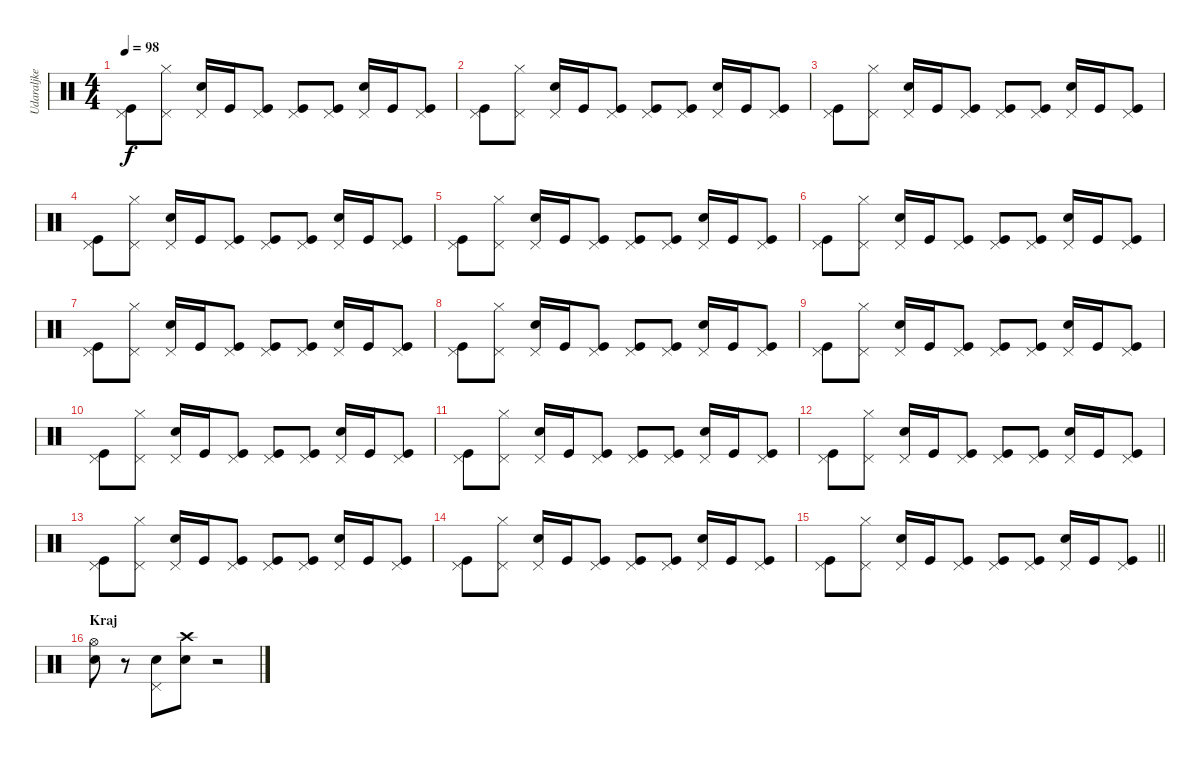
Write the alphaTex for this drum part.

\track ("Udaraljke" "Udaraljke") {instrument percussion}
\staff {score}
\articulation defaults
\ts (4 4)
\tempo 98
\clef neutral
\ks c
("Pedal Hi-Hat (hit)" "Kick (hit)").8{dy f} ("Pedal Hi-Hat (hit)" "Hi-Hat (closed)").8 ("Pedal Hi-Hat (hit)" "Electric Snare (hit)").16 "Kick (hit)".16 ("Pedal Hi-Hat (hit)" "Kick (hit)").8 ("Pedal Hi-Hat (hit)" "Kick (hit)").8 ("Pedal Hi-Hat (hit)" "Kick (hit)").8 ("Pedal Hi-Hat (hit)" "Electric Snare (hit)").16 "Kick (hit)".16 ("Pedal Hi-Hat (hit)" "Kick (hit)").8 |
("Pedal Hi-Hat (hit)" "Kick (hit)").8 ("Pedal Hi-Hat (hit)" "Hi-Hat (closed)").8 ("Pedal Hi-Hat (hit)" "Electric Snare (hit)").16 "Kick (hit)".16 ("Pedal Hi-Hat (hit)" "Kick (hit)").8 ("Pedal Hi-Hat (hit)" "Kick (hit)").8 ("Pedal Hi-Hat (hit)" "Kick (hit)").8 ("Pedal Hi-Hat (hit)" "Electric Snare (hit)").16 "Kick (hit)".16 ("Pedal Hi-Hat (hit)" "Kick (hit)").8 |
("Pedal Hi-Hat (hit)" "Kick (hit)").8 ("Pedal Hi-Hat (hit)" "Hi-Hat (closed)").8 ("Pedal Hi-Hat (hit)" "Electric Snare (hit)").16 "Kick (hit)".16 ("Pedal Hi-Hat (hit)" "Kick (hit)").8 ("Pedal Hi-Hat (hit)" "Kick (hit)").8 ("Pedal Hi-Hat (hit)" "Kick (hit)").8 ("Pedal Hi-Hat (hit)" "Electric Snare (hit)").16 "Kick (hit)".16 ("Pedal Hi-Hat (hit)" "Kick (hit)").8 |
("Pedal Hi-Hat (hit)" "Kick (hit)").8 ("Pedal Hi-Hat (hit)" "Hi-Hat (closed)").8 ("Pedal Hi-Hat (hit)" "Electric Snare (hit)").16 "Kick (hit)".16 ("Pedal Hi-Hat (hit)" "Kick (hit)").8 ("Pedal Hi-Hat (hit)" "Kick (hit)").8 ("Pedal Hi-Hat (hit)" "Kick (hit)").8 ("Pedal Hi-Hat (hit)" "Electric Snare (hit)").16 "Kick (hit)".16 ("Pedal Hi-Hat (hit)" "Kick (hit)").8 |
("Pedal Hi-Hat (hit)" "Kick (hit)").8 ("Pedal Hi-Hat (hit)" "Hi-Hat (closed)").8 ("Pedal Hi-Hat (hit)" "Electric Snare (hit)").16 "Kick (hit)".16 ("Pedal Hi-Hat (hit)" "Kick (hit)").8 ("Pedal Hi-Hat (hit)" "Kick (hit)").8 ("Pedal Hi-Hat (hit)" "Kick (hit)").8 ("Pedal Hi-Hat (hit)" "Electric Snare (hit)").16 "Kick (hit)".16 ("Pedal Hi-Hat (hit)" "Kick (hit)").8 |
("Pedal Hi-Hat (hit)" "Kick (hit)").8 ("Pedal Hi-Hat (hit)" "Hi-Hat (closed)").8 ("Pedal Hi-Hat (hit)" "Electric Snare (hit)").16 "Kick (hit)".16 ("Pedal Hi-Hat (hit)" "Kick (hit)").8 ("Pedal Hi-Hat (hit)" "Kick (hit)").8 ("Pedal Hi-Hat (hit)" "Kick (hit)").8 ("Pedal Hi-Hat (hit)" "Electric Snare (hit)").16 "Kick (hit)".16 ("Pedal Hi-Hat (hit)" "Kick (hit)").8 |
("Pedal Hi-Hat (hit)" "Kick (hit)").8 ("Pedal Hi-Hat (hit)" "Hi-Hat (closed)").8 ("Pedal Hi-Hat (hit)" "Electric Snare (hit)").16 "Kick (hit)".16 ("Pedal Hi-Hat (hit)" "Kick (hit)").8 ("Pedal Hi-Hat (hit)" "Kick (hit)").8 ("Pedal Hi-Hat (hit)" "Kick (hit)").8 ("Pedal Hi-Hat (hit)" "Electric Snare (hit)").16 "Kick (hit)".16 ("Pedal Hi-Hat (hit)" "Kick (hit)").8 |
("Pedal Hi-Hat (hit)" "Kick (hit)").8 ("Pedal Hi-Hat (hit)" "Hi-Hat (closed)").8 ("Pedal Hi-Hat (hit)" "Electric Snare (hit)").16 "Kick (hit)".16 ("Pedal Hi-Hat (hit)" "Kick (hit)").8 ("Pedal Hi-Hat (hit)" "Kick (hit)").8 ("Pedal Hi-Hat (hit)" "Kick (hit)").8 ("Pedal Hi-Hat (hit)" "Electric Snare (hit)").16 "Kick (hit)".16 ("Pedal Hi-Hat (hit)" "Kick (hit)").8 |
("Pedal Hi-Hat (hit)" "Kick (hit)").8 ("Pedal Hi-Hat (hit)" "Hi-Hat (closed)").8 ("Pedal Hi-Hat (hit)" "Electric Snare (hit)").16 "Kick (hit)".16 ("Pedal Hi-Hat (hit)" "Kick (hit)").8 ("Pedal Hi-Hat (hit)" "Kick (hit)").8 ("Pedal Hi-Hat (hit)" "Kick (hit)").8 ("Pedal Hi-Hat (hit)" "Electric Snare (hit)").16 "Kick (hit)".16 ("Pedal Hi-Hat (hit)" "Kick (hit)").8 |
("Pedal Hi-Hat (hit)" "Kick (hit)").8 ("Pedal Hi-Hat (hit)" "Hi-Hat (closed)").8 ("Pedal Hi-Hat (hit)" "Electric Snare (hit)").16 "Kick (hit)".16 ("Pedal Hi-Hat (hit)" "Kick (hit)").8 ("Pedal Hi-Hat (hit)" "Kick (hit)").8 ("Pedal Hi-Hat (hit)" "Kick (hit)").8 ("Pedal Hi-Hat (hit)" "Electric Snare (hit)").16 "Kick (hit)".16 ("Pedal Hi-Hat (hit)" "Kick (hit)").8 |
("Pedal Hi-Hat (hit)" "Kick (hit)").8 ("Pedal Hi-Hat (hit)" "Hi-Hat (closed)").8 ("Pedal Hi-Hat (hit)" "Electric Snare (hit)").16 "Kick (hit)".16 ("Pedal Hi-Hat (hit)" "Kick (hit)").8 ("Pedal Hi-Hat (hit)" "Kick (hit)").8 ("Pedal Hi-Hat (hit)" "Kick (hit)").8 ("Pedal Hi-Hat (hit)" "Electric Snare (hit)").16 "Kick (hit)".16 ("Pedal Hi-Hat (hit)" "Kick (hit)").8 |
("Pedal Hi-Hat (hit)" "Kick (hit)").8 ("Pedal Hi-Hat (hit)" "Hi-Hat (closed)").8 ("Pedal Hi-Hat (hit)" "Electric Snare (hit)").16 "Kick (hit)".16 ("Pedal Hi-Hat (hit)" "Kick (hit)").8 ("Pedal Hi-Hat (hit)" "Kick (hit)").8 ("Pedal Hi-Hat (hit)" "Kick (hit)").8 ("Pedal Hi-Hat (hit)" "Electric Snare (hit)").16 "Kick (hit)".16 ("Pedal Hi-Hat (hit)" "Kick (hit)").8 |
("Pedal Hi-Hat (hit)" "Kick (hit)").8 ("Pedal Hi-Hat (hit)" "Hi-Hat (closed)").8 ("Pedal Hi-Hat (hit)" "Electric Snare (hit)").16 "Kick (hit)".16 ("Pedal Hi-Hat (hit)" "Kick (hit)").8 ("Pedal Hi-Hat (hit)" "Kick (hit)").8 ("Pedal Hi-Hat (hit)" "Kick (hit)").8 ("Pedal Hi-Hat (hit)" "Electric Snare (hit)").16 "Kick (hit)".16 ("Pedal Hi-Hat (hit)" "Kick (hit)").8 |
("Pedal Hi-Hat (hit)" "Kick (hit)").8 ("Pedal Hi-Hat (hit)" "Hi-Hat (closed)").8 ("Pedal Hi-Hat (hit)" "Electric Snare (hit)").16 "Kick (hit)".16 ("Pedal Hi-Hat (hit)" "Kick (hit)").8 ("Pedal Hi-Hat (hit)" "Kick (hit)").8 ("Pedal Hi-Hat (hit)" "Kick (hit)").8 ("Pedal Hi-Hat (hit)" "Electric Snare (hit)").16 "Kick (hit)".16 ("Pedal Hi-Hat (hit)" "Kick (hit)").8 |
\barLineRight lightlight
("Pedal Hi-Hat (hit)" "Kick (hit)").8 ("Pedal Hi-Hat (hit)" "Hi-Hat (closed)").8 ("Pedal Hi-Hat (hit)" "Electric Snare (hit)").16 "Kick (hit)".16 ("Pedal Hi-Hat (hit)" "Kick (hit)").8 ("Pedal Hi-Hat (hit)" "Kick (hit)").8 ("Pedal Hi-Hat (hit)" "Kick (hit)").8 ("Pedal Hi-Hat (hit)" "Electric Snare (hit)").16 "Kick (hit)".16 ("Pedal Hi-Hat (hit)" "Kick (hit)").8 |
\section ("" "Kraj")
("Hi-Hat (open)" "Snare (hit) 2").8 r.8 ("Pedal Hi-Hat (hit)" "Snare (hit) 2").8 ("Crash high (hit)" "Electric Snare (hit)").8 r.2
